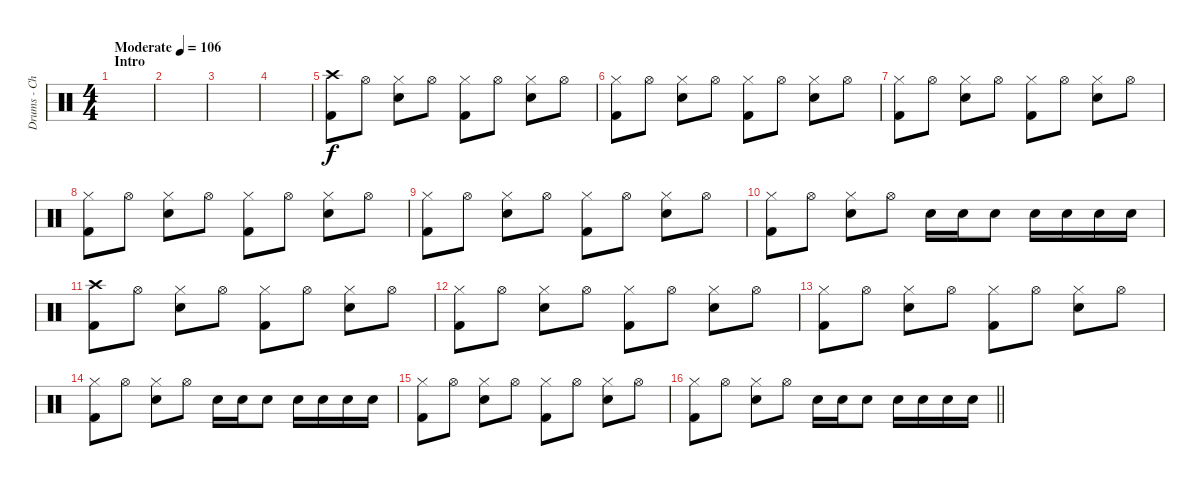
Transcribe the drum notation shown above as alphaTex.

\track ("Drums - Christoph Schneider" "Drums - Ch") {instrument percussion}
\staff {score}
\articulation defaults
\ts (4 4)
\section ("" "Intro")
\tempo (106 "Moderate")
\clef neutral
\ks c
|
|
|
|
("Crash high (hit)" "Kick (hit) 2").8 "Hi-Hat (open)".8 ("Hi-Hat (closed)" "Snare (hit) 2").8 "Hi-Hat (open)".8 ("Hi-Hat (closed)" "Kick (hit) 2").8 "Hi-Hat (open)".8 ("Hi-Hat (closed)" "Snare (hit) 2").8 "Hi-Hat (open)".8 |
("Hi-Hat (closed)" "Kick (hit) 2").8 "Hi-Hat (open)".8 ("Hi-Hat (closed)" "Snare (hit) 2").8 "Hi-Hat (open)".8 ("Hi-Hat (closed)" "Kick (hit) 2").8 "Hi-Hat (open)".8 ("Hi-Hat (closed)" "Snare (hit) 2").8 "Hi-Hat (open)".8 |
("Hi-Hat (closed)" "Kick (hit) 2").8 "Hi-Hat (open)".8 ("Hi-Hat (closed)" "Snare (hit) 2").8 "Hi-Hat (open)".8 ("Hi-Hat (closed)" "Kick (hit) 2").8 "Hi-Hat (open)".8 ("Hi-Hat (closed)" "Snare (hit) 2").8 "Hi-Hat (open)".8 |
("Hi-Hat (closed)" "Kick (hit) 2").8 "Hi-Hat (open)".8 ("Hi-Hat (closed)" "Snare (hit) 2").8 "Hi-Hat (open)".8 ("Hi-Hat (closed)" "Kick (hit) 2").8 "Hi-Hat (open)".8 ("Hi-Hat (closed)" "Snare (hit) 2").8 "Hi-Hat (open)".8 |
("Hi-Hat (closed)" "Kick (hit) 2").8 "Hi-Hat (open)".8 ("Hi-Hat (closed)" "Snare (hit) 2").8 "Hi-Hat (open)".8 ("Hi-Hat (closed)" "Kick (hit) 2").8 "Hi-Hat (open)".8 ("Hi-Hat (closed)" "Snare (hit) 2").8 "Hi-Hat (open)".8 |
("Hi-Hat (closed)" "Kick (hit) 2").8 "Hi-Hat (open)".8 ("Hi-Hat (closed)" "Snare (hit) 2").8 "Hi-Hat (open)".8 "Snare (hit) 2".16 "Snare (hit) 2".16 "Snare (hit) 2".8 "Snare (hit) 2".16 "Snare (hit) 2".16 "Snare (hit) 2".16 "Snare (hit) 2".16 |
("Crash high (hit)" "Kick (hit) 2").8 "Hi-Hat (open)".8 ("Hi-Hat (closed)" "Snare (hit) 2").8 "Hi-Hat (open)".8 ("Hi-Hat (closed)" "Kick (hit) 2").8 "Hi-Hat (open)".8 ("Hi-Hat (closed)" "Snare (hit) 2").8 "Hi-Hat (open)".8 |
("Hi-Hat (closed)" "Kick (hit) 2").8 "Hi-Hat (open)".8 ("Hi-Hat (closed)" "Snare (hit) 2").8 "Hi-Hat (open)".8 ("Hi-Hat (closed)" "Kick (hit) 2").8 "Hi-Hat (open)".8 ("Hi-Hat (closed)" "Snare (hit) 2").8 "Hi-Hat (open)".8 |
("Hi-Hat (closed)" "Kick (hit) 2").8 "Hi-Hat (open)".8 ("Hi-Hat (closed)" "Snare (hit) 2").8 "Hi-Hat (open)".8 ("Hi-Hat (closed)" "Kick (hit) 2").8 "Hi-Hat (open)".8 ("Hi-Hat (closed)" "Snare (hit) 2").8 "Hi-Hat (open)".8 |
("Hi-Hat (closed)" "Kick (hit) 2").8 "Hi-Hat (open)".8 ("Hi-Hat (closed)" "Snare (hit) 2").8 "Hi-Hat (open)".8 "Snare (hit) 2".16 "Snare (hit) 2".16 "Snare (hit) 2".8 "Snare (hit) 2".16 "Snare (hit) 2".16 "Snare (hit) 2".16 "Snare (hit) 2".16 |
("Hi-Hat (closed)" "Kick (hit) 2").8 "Hi-Hat (open)".8 ("Hi-Hat (closed)" "Snare (hit) 2").8 "Hi-Hat (open)".8 ("Hi-Hat (closed)" "Kick (hit) 2").8 "Hi-Hat (open)".8 ("Hi-Hat (closed)" "Snare (hit) 2").8 "Hi-Hat (open)".8 |
\barLineRight lightlight
("Hi-Hat (closed)" "Kick (hit) 2").8 "Hi-Hat (open)".8 ("Hi-Hat (closed)" "Snare (hit) 2").8 "Hi-Hat (open)".8 "Snare (hit) 2".16 "Snare (hit) 2".16 "Snare (hit) 2".8 "Snare (hit) 2".16 "Snare (hit) 2".16 "Snare (hit) 2".16 "Snare (hit) 2".16
